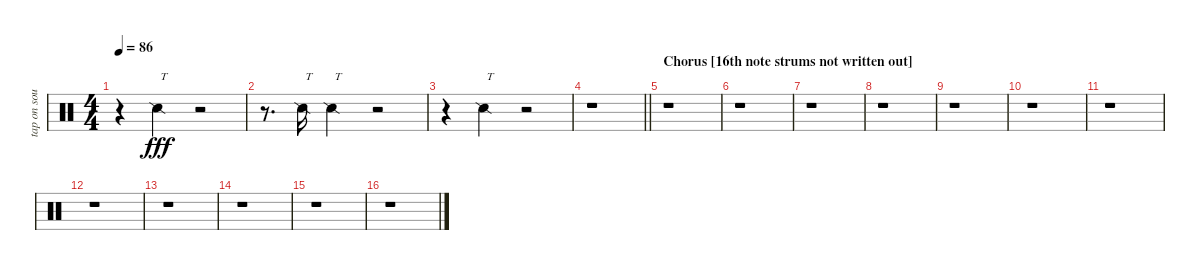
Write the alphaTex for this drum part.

\track ("tap on soundboard" "tap on sou") {instrument percussion}
\staff {score}
\articulation defaults
\ts (4 4)
\tempo 86
\clef neutral
\ks c
r.4{dy mp} "Snare (side stick) 2".4{txt "T" dy fff} r.2 |
r.8{d} "Snare (side stick) 2".16{txt "T"} "Snare (side stick) 2".4{txt "T"} r.2 |
r.4 "Snare (side stick) 2".4{txt "T"} r.2 |
\barLineRight lightlight
r.1 |
\section ("" "Chorus [16th note strums not written out]")
r.1 |
r.1 |
r.1 |
r.1 |
r.1 |
r.1 |
r.1 |
r.1 |
r.1 |
r.1 |
r.1 |
r.1
